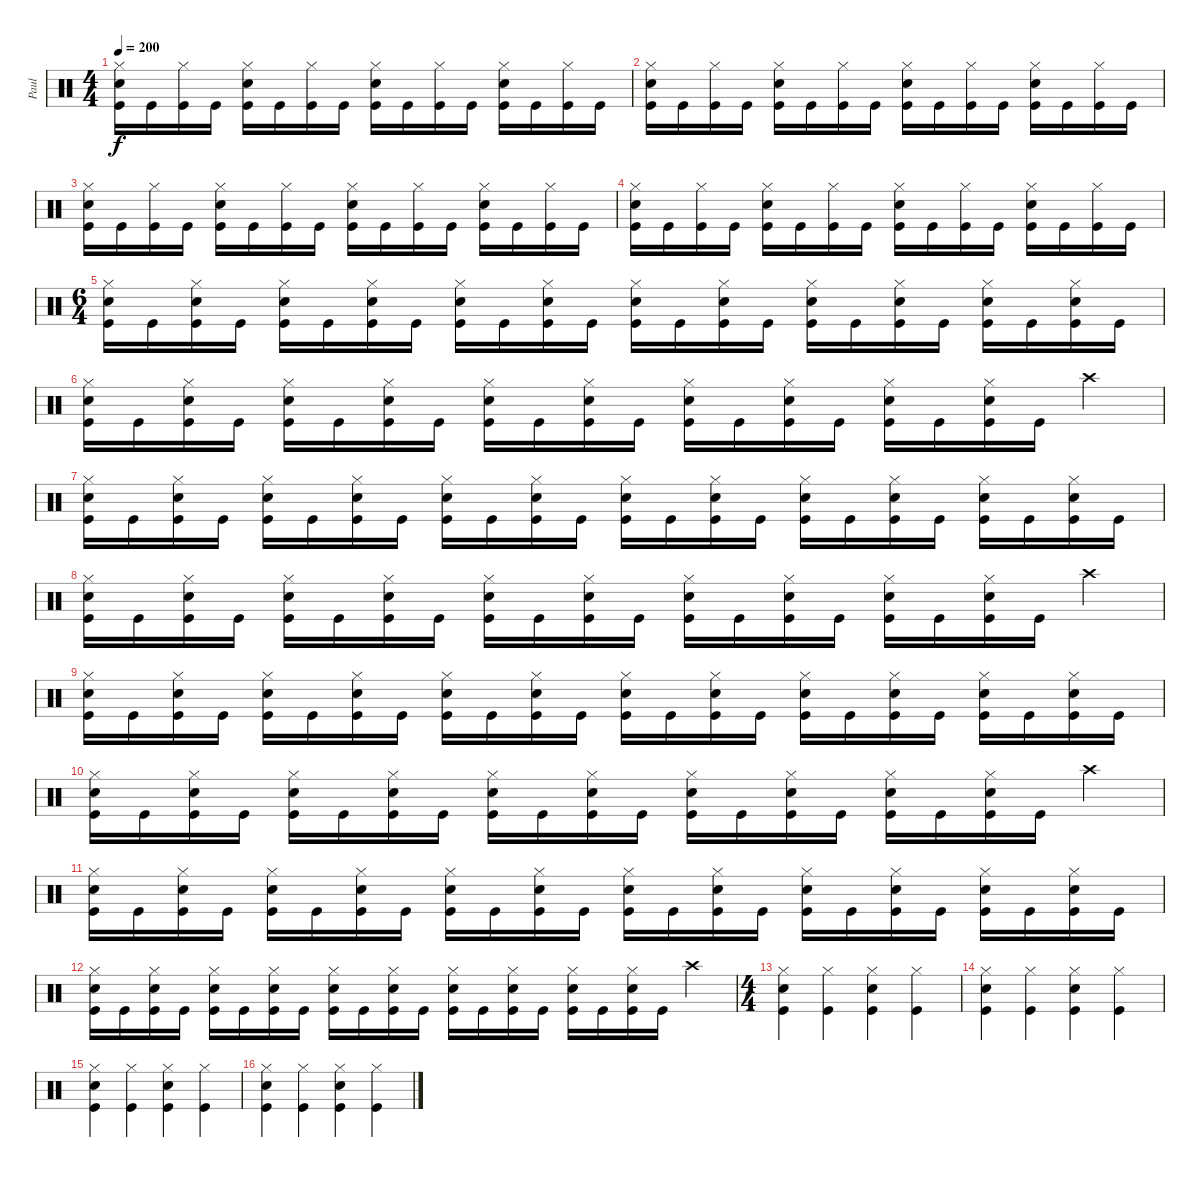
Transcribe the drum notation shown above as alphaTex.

\track ("Paul" "Paul") {instrument percussion}
\staff {score}
\articulation defaults
\ts (4 4)
\tempo 200
\clef neutral
\ks c
("Kick (hit)" "Snare (hit) 2" "Hi-Hat (closed)").16{dy f} "Kick (hit)".16 ("Kick (hit)" "Hi-Hat (closed)").16 "Kick (hit)".16 ("Kick (hit)" "Snare (hit) 2" "Hi-Hat (closed)").16 "Kick (hit)".16 ("Kick (hit)" "Hi-Hat (closed)").16 "Kick (hit)".16 ("Kick (hit)" "Snare (hit) 2" "Hi-Hat (closed)").16 "Kick (hit)".16 ("Kick (hit)" "Hi-Hat (closed)").16 "Kick (hit)".16 ("Kick (hit)" "Snare (hit) 2" "Hi-Hat (closed)").16 "Kick (hit)".16 ("Kick (hit)" "Hi-Hat (closed)").16 "Kick (hit)".16 |
("Kick (hit)" "Snare (hit) 2" "Hi-Hat (closed)").16 "Kick (hit)".16 ("Kick (hit)" "Hi-Hat (closed)").16 "Kick (hit)".16 ("Kick (hit)" "Snare (hit) 2" "Hi-Hat (closed)").16 "Kick (hit)".16 ("Kick (hit)" "Hi-Hat (closed)").16 "Kick (hit)".16 ("Kick (hit)" "Snare (hit) 2" "Hi-Hat (closed)").16 "Kick (hit)".16 ("Kick (hit)" "Hi-Hat (closed)").16 "Kick (hit)".16 ("Kick (hit)" "Snare (hit) 2" "Hi-Hat (closed)").16 "Kick (hit)".16 ("Kick (hit)" "Hi-Hat (closed)").16 "Kick (hit)".16 |
("Kick (hit)" "Snare (hit) 2" "Hi-Hat (closed)").16 "Kick (hit)".16 ("Kick (hit)" "Hi-Hat (closed)").16 "Kick (hit)".16 ("Kick (hit)" "Snare (hit) 2" "Hi-Hat (closed)").16 "Kick (hit)".16 ("Kick (hit)" "Hi-Hat (closed)").16 "Kick (hit)".16 ("Kick (hit)" "Snare (hit) 2" "Hi-Hat (closed)").16 "Kick (hit)".16 ("Kick (hit)" "Hi-Hat (closed)").16 "Kick (hit)".16 ("Kick (hit)" "Snare (hit) 2" "Hi-Hat (closed)").16 "Kick (hit)".16 ("Kick (hit)" "Hi-Hat (closed)").16 "Kick (hit)".16 |
("Kick (hit)" "Snare (hit) 2" "Hi-Hat (closed)").16 "Kick (hit)".16 ("Kick (hit)" "Hi-Hat (closed)").16 "Kick (hit)".16 ("Kick (hit)" "Snare (hit) 2" "Hi-Hat (closed)").16 "Kick (hit)".16 ("Kick (hit)" "Hi-Hat (closed)").16 "Kick (hit)".16 ("Kick (hit)" "Snare (hit) 2" "Hi-Hat (closed)").16 "Kick (hit)".16 ("Kick (hit)" "Hi-Hat (closed)").16 "Kick (hit)".16 ("Kick (hit)" "Snare (hit) 2" "Hi-Hat (closed)").16 "Kick (hit)".16 ("Kick (hit)" "Hi-Hat (closed)").16 "Kick (hit)".16 |
\ts (6 4)
("Kick (hit)" "Snare (hit) 2" "Hi-Hat (closed)").16 "Kick (hit)".16 ("Kick (hit)" "Snare (hit) 2" "Hi-Hat (closed)").16 "Kick (hit)".16 ("Kick (hit)" "Snare (hit) 2" "Hi-Hat (closed)").16 "Kick (hit)".16 ("Kick (hit)" "Snare (hit) 2" "Hi-Hat (closed)").16 "Kick (hit)".16 ("Kick (hit)" "Snare (hit) 2" "Hi-Hat (closed)").16 "Kick (hit)".16 ("Kick (hit)" "Snare (hit) 2" "Hi-Hat (closed)").16 "Kick (hit)".16 ("Kick (hit)" "Snare (hit) 2" "Hi-Hat (closed)").16 "Kick (hit)".16 ("Kick (hit)" "Snare (hit) 2" "Hi-Hat (closed)").16 "Kick (hit)".16 ("Kick (hit)" "Snare (hit) 2" "Hi-Hat (closed)").16 "Kick (hit)".16 ("Kick (hit)" "Snare (hit) 2" "Hi-Hat (closed)").16 "Kick (hit)".16 ("Kick (hit)" "Snare (hit) 2" "Hi-Hat (closed)").16 "Kick (hit)".16 ("Kick (hit)" "Snare (hit) 2" "Hi-Hat (closed)").16 "Kick (hit)".16 |
("Kick (hit)" "Snare (hit) 2" "Hi-Hat (closed)").16 "Kick (hit)".16 ("Kick (hit)" "Snare (hit) 2" "Hi-Hat (closed)").16 "Kick (hit)".16 ("Kick (hit)" "Snare (hit) 2" "Hi-Hat (closed)").16 "Kick (hit)".16 ("Kick (hit)" "Snare (hit) 2" "Hi-Hat (closed)").16 "Kick (hit)".16 ("Kick (hit)" "Snare (hit) 2" "Hi-Hat (closed)").16 "Kick (hit)".16 ("Kick (hit)" "Snare (hit) 2" "Hi-Hat (closed)").16 "Kick (hit)".16 ("Kick (hit)" "Snare (hit) 2" "Hi-Hat (closed)").16 "Kick (hit)".16 ("Kick (hit)" "Snare (hit) 2" "Hi-Hat (closed)").16 "Kick (hit)".16 ("Kick (hit)" "Snare (hit) 2" "Hi-Hat (closed)").16 "Kick (hit)".16 ("Kick (hit)" "Snare (hit) 2" "Hi-Hat (closed)").16 "Kick (hit)".16 "Crash high (hit)".4 |
("Kick (hit)" "Snare (hit) 2" "Hi-Hat (closed)").16 "Kick (hit)".16 ("Kick (hit)" "Snare (hit) 2" "Hi-Hat (closed)").16 "Kick (hit)".16 ("Kick (hit)" "Snare (hit) 2" "Hi-Hat (closed)").16 "Kick (hit)".16 ("Kick (hit)" "Snare (hit) 2" "Hi-Hat (closed)").16 "Kick (hit)".16 ("Kick (hit)" "Snare (hit) 2" "Hi-Hat (closed)").16 "Kick (hit)".16 ("Kick (hit)" "Snare (hit) 2" "Hi-Hat (closed)").16 "Kick (hit)".16 ("Kick (hit)" "Snare (hit) 2" "Hi-Hat (closed)").16 "Kick (hit)".16 ("Kick (hit)" "Snare (hit) 2" "Hi-Hat (closed)").16 "Kick (hit)".16 ("Kick (hit)" "Snare (hit) 2" "Hi-Hat (closed)").16 "Kick (hit)".16 ("Kick (hit)" "Snare (hit) 2" "Hi-Hat (closed)").16 "Kick (hit)".16 ("Kick (hit)" "Snare (hit) 2" "Hi-Hat (closed)").16 "Kick (hit)".16 ("Kick (hit)" "Snare (hit) 2" "Hi-Hat (closed)").16 "Kick (hit)".16 |
("Kick (hit)" "Snare (hit) 2" "Hi-Hat (closed)").16 "Kick (hit)".16 ("Kick (hit)" "Snare (hit) 2" "Hi-Hat (closed)").16 "Kick (hit)".16 ("Kick (hit)" "Snare (hit) 2" "Hi-Hat (closed)").16 "Kick (hit)".16 ("Kick (hit)" "Snare (hit) 2" "Hi-Hat (closed)").16 "Kick (hit)".16 ("Kick (hit)" "Snare (hit) 2" "Hi-Hat (closed)").16 "Kick (hit)".16 ("Kick (hit)" "Snare (hit) 2" "Hi-Hat (closed)").16 "Kick (hit)".16 ("Kick (hit)" "Snare (hit) 2" "Hi-Hat (closed)").16 "Kick (hit)".16 ("Kick (hit)" "Snare (hit) 2" "Hi-Hat (closed)").16 "Kick (hit)".16 ("Kick (hit)" "Snare (hit) 2" "Hi-Hat (closed)").16 "Kick (hit)".16 ("Kick (hit)" "Snare (hit) 2" "Hi-Hat (closed)").16 "Kick (hit)".16 "Crash high (hit)".4 |
("Kick (hit)" "Snare (hit) 2" "Hi-Hat (closed)").16 "Kick (hit)".16 ("Kick (hit)" "Snare (hit) 2" "Hi-Hat (closed)").16 "Kick (hit)".16 ("Kick (hit)" "Snare (hit) 2" "Hi-Hat (closed)").16 "Kick (hit)".16 ("Kick (hit)" "Snare (hit) 2" "Hi-Hat (closed)").16 "Kick (hit)".16 ("Kick (hit)" "Snare (hit) 2" "Hi-Hat (closed)").16 "Kick (hit)".16 ("Kick (hit)" "Snare (hit) 2" "Hi-Hat (closed)").16 "Kick (hit)".16 ("Kick (hit)" "Snare (hit) 2" "Hi-Hat (closed)").16 "Kick (hit)".16 ("Kick (hit)" "Snare (hit) 2" "Hi-Hat (closed)").16 "Kick (hit)".16 ("Kick (hit)" "Snare (hit) 2" "Hi-Hat (closed)").16 "Kick (hit)".16 ("Kick (hit)" "Snare (hit) 2" "Hi-Hat (closed)").16 "Kick (hit)".16 ("Kick (hit)" "Snare (hit) 2" "Hi-Hat (closed)").16 "Kick (hit)".16 ("Kick (hit)" "Snare (hit) 2" "Hi-Hat (closed)").16 "Kick (hit)".16 |
("Kick (hit)" "Snare (hit) 2" "Hi-Hat (closed)").16 "Kick (hit)".16 ("Kick (hit)" "Snare (hit) 2" "Hi-Hat (closed)").16 "Kick (hit)".16 ("Kick (hit)" "Snare (hit) 2" "Hi-Hat (closed)").16 "Kick (hit)".16 ("Kick (hit)" "Snare (hit) 2" "Hi-Hat (closed)").16 "Kick (hit)".16 ("Kick (hit)" "Snare (hit) 2" "Hi-Hat (closed)").16 "Kick (hit)".16 ("Kick (hit)" "Snare (hit) 2" "Hi-Hat (closed)").16 "Kick (hit)".16 ("Kick (hit)" "Snare (hit) 2" "Hi-Hat (closed)").16 "Kick (hit)".16 ("Kick (hit)" "Snare (hit) 2" "Hi-Hat (closed)").16 "Kick (hit)".16 ("Kick (hit)" "Snare (hit) 2" "Hi-Hat (closed)").16 "Kick (hit)".16 ("Kick (hit)" "Snare (hit) 2" "Hi-Hat (closed)").16 "Kick (hit)".16 "Crash high (hit)".4 |
("Kick (hit)" "Snare (hit) 2" "Hi-Hat (closed)").16 "Kick (hit)".16 ("Kick (hit)" "Snare (hit) 2" "Hi-Hat (closed)").16 "Kick (hit)".16 ("Kick (hit)" "Snare (hit) 2" "Hi-Hat (closed)").16 "Kick (hit)".16 ("Kick (hit)" "Snare (hit) 2" "Hi-Hat (closed)").16 "Kick (hit)".16 ("Kick (hit)" "Snare (hit) 2" "Hi-Hat (closed)").16 "Kick (hit)".16 ("Kick (hit)" "Snare (hit) 2" "Hi-Hat (closed)").16 "Kick (hit)".16 ("Kick (hit)" "Snare (hit) 2" "Hi-Hat (closed)").16 "Kick (hit)".16 ("Kick (hit)" "Snare (hit) 2" "Hi-Hat (closed)").16 "Kick (hit)".16 ("Kick (hit)" "Snare (hit) 2" "Hi-Hat (closed)").16 "Kick (hit)".16 ("Kick (hit)" "Snare (hit) 2" "Hi-Hat (closed)").16 "Kick (hit)".16 ("Kick (hit)" "Snare (hit) 2" "Hi-Hat (closed)").16 "Kick (hit)".16 ("Kick (hit)" "Snare (hit) 2" "Hi-Hat (closed)").16 "Kick (hit)".16 |
("Kick (hit)" "Snare (hit) 2" "Hi-Hat (closed)").16 "Kick (hit)".16 ("Kick (hit)" "Snare (hit) 2" "Hi-Hat (closed)").16 "Kick (hit)".16 ("Kick (hit)" "Snare (hit) 2" "Hi-Hat (closed)").16 "Kick (hit)".16 ("Kick (hit)" "Snare (hit) 2" "Hi-Hat (closed)").16 "Kick (hit)".16 ("Kick (hit)" "Snare (hit) 2" "Hi-Hat (closed)").16 "Kick (hit)".16 ("Kick (hit)" "Snare (hit) 2" "Hi-Hat (closed)").16 "Kick (hit)".16 ("Kick (hit)" "Snare (hit) 2" "Hi-Hat (closed)").16 "Kick (hit)".16 ("Kick (hit)" "Snare (hit) 2" "Hi-Hat (closed)").16 "Kick (hit)".16 ("Kick (hit)" "Snare (hit) 2" "Hi-Hat (closed)").16 "Kick (hit)".16 ("Kick (hit)" "Snare (hit) 2" "Hi-Hat (closed)").16 "Kick (hit)".16 "Crash high (hit)".4 |
\ts (4 4)
("Hi-Hat (closed)" "Snare (hit) 2" "Kick (hit)").4 ("Hi-Hat (closed)" "Kick (hit)").4 ("Hi-Hat (closed)" "Snare (hit) 2" "Kick (hit)").4 ("Hi-Hat (closed)" "Kick (hit)").4 |
("Hi-Hat (closed)" "Snare (hit) 2" "Kick (hit)").4 ("Hi-Hat (closed)" "Kick (hit)").4 ("Hi-Hat (closed)" "Snare (hit) 2" "Kick (hit)").4 ("Hi-Hat (closed)" "Kick (hit)").4 |
("Hi-Hat (closed)" "Snare (hit) 2" "Kick (hit)").4 ("Hi-Hat (closed)" "Kick (hit)").4 ("Hi-Hat (closed)" "Snare (hit) 2" "Kick (hit)").4 ("Hi-Hat (closed)" "Kick (hit)").4 |
("Hi-Hat (closed)" "Snare (hit) 2" "Kick (hit)").4 ("Hi-Hat (closed)" "Kick (hit)").4 ("Hi-Hat (closed)" "Snare (hit) 2" "Kick (hit)").4 ("Hi-Hat (closed)" "Kick (hit)").4
